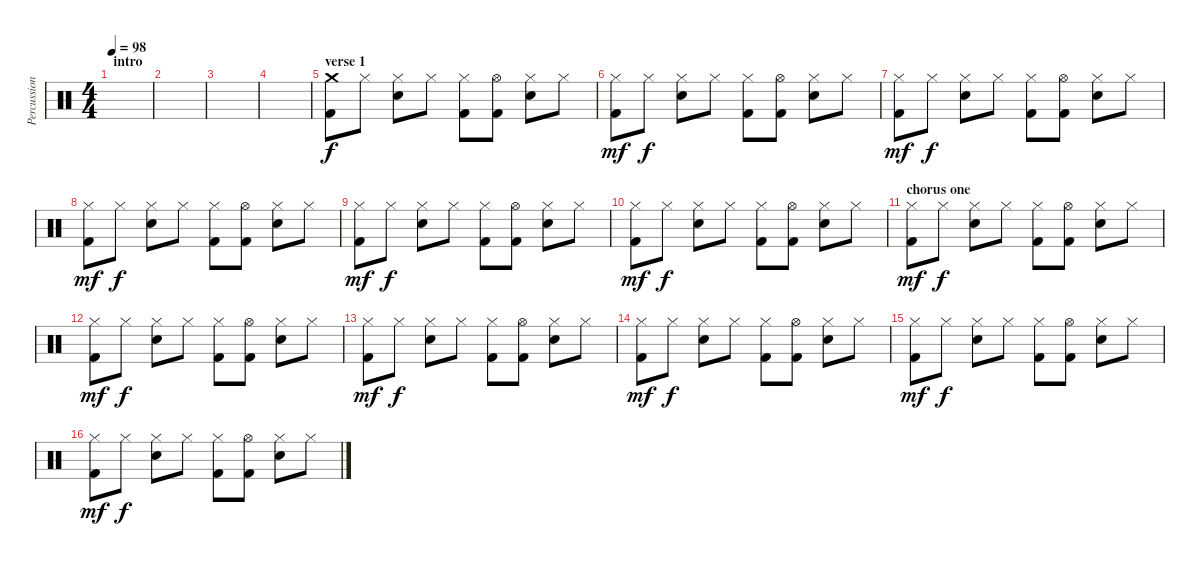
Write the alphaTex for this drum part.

\track ("Percussion" "Percussion") {instrument percussion}
\staff {score}
\articulation defaults
\ts (4 4)
\section ("" "intro")
\tempo 98
\clef neutral
\ks c
|
|
|
|
\section ("" "verse 1")
("Crash medium (hit)" "Kick (hit) 2").8 "Hi-Hat (closed)".8{dy f} ("Hi-Hat (closed)" "Snare (hit) 2").8 "Hi-Hat (closed)".8 ("Hi-Hat (closed)" "Kick (hit) 2").8 ("Hi-Hat (open)" "Kick (hit) 2").8 ("Hi-Hat (closed)" "Snare (hit) 2").8 "Hi-Hat (closed)".8 |
("Hi-Hat (closed)" "Kick (hit) 2").8{dy mf} "Hi-Hat (closed)".8{dy f} ("Hi-Hat (closed)" "Snare (hit) 2").8 "Hi-Hat (closed)".8 ("Hi-Hat (closed)" "Kick (hit) 2").8 ("Hi-Hat (open)" "Kick (hit) 2").8 ("Hi-Hat (closed)" "Snare (hit) 2").8 "Hi-Hat (closed)".8 |
("Hi-Hat (closed)" "Kick (hit) 2").8{dy mf} "Hi-Hat (closed)".8{dy f} ("Hi-Hat (closed)" "Snare (hit) 2").8 "Hi-Hat (closed)".8 ("Hi-Hat (closed)" "Kick (hit) 2").8 ("Hi-Hat (open)" "Kick (hit) 2").8 ("Hi-Hat (closed)" "Snare (hit) 2").8 "Hi-Hat (closed)".8 |
("Hi-Hat (closed)" "Kick (hit) 2").8{dy mf} "Hi-Hat (closed)".8{dy f} ("Hi-Hat (closed)" "Snare (hit) 2").8 "Hi-Hat (closed)".8 ("Hi-Hat (closed)" "Kick (hit) 2").8 ("Hi-Hat (open)" "Kick (hit) 2").8 ("Hi-Hat (closed)" "Snare (hit) 2").8 "Hi-Hat (closed)".8 |
("Hi-Hat (closed)" "Kick (hit) 2").8{dy mf} "Hi-Hat (closed)".8{dy f} ("Hi-Hat (closed)" "Snare (hit) 2").8 "Hi-Hat (closed)".8 ("Hi-Hat (closed)" "Kick (hit) 2").8 ("Hi-Hat (open)" "Kick (hit) 2").8 ("Hi-Hat (closed)" "Snare (hit) 2").8 "Hi-Hat (closed)".8 |
("Hi-Hat (closed)" "Kick (hit) 2").8{dy mf} "Hi-Hat (closed)".8{dy f} ("Hi-Hat (closed)" "Snare (hit) 2").8 "Hi-Hat (closed)".8 ("Hi-Hat (closed)" "Kick (hit) 2").8 ("Hi-Hat (open)" "Kick (hit) 2").8 ("Hi-Hat (closed)" "Snare (hit) 2").8 "Hi-Hat (closed)".8 |
\section ("" "chorus one")
("Hi-Hat (closed)" "Kick (hit) 2").8{dy mf} "Hi-Hat (closed)".8{dy f} ("Hi-Hat (closed)" "Snare (hit) 2").8 "Hi-Hat (closed)".8 ("Hi-Hat (closed)" "Kick (hit) 2").8 ("Hi-Hat (open)" "Kick (hit) 2").8 ("Hi-Hat (closed)" "Snare (hit) 2").8 "Hi-Hat (closed)".8 |
("Hi-Hat (closed)" "Kick (hit) 2").8{dy mf} "Hi-Hat (closed)".8{dy f} ("Hi-Hat (closed)" "Snare (hit) 2").8 "Hi-Hat (closed)".8 ("Hi-Hat (closed)" "Kick (hit) 2").8 ("Hi-Hat (open)" "Kick (hit) 2").8 ("Hi-Hat (closed)" "Snare (hit) 2").8 "Hi-Hat (closed)".8 |
("Hi-Hat (closed)" "Kick (hit) 2").8{dy mf} "Hi-Hat (closed)".8{dy f} ("Hi-Hat (closed)" "Snare (hit) 2").8 "Hi-Hat (closed)".8 ("Hi-Hat (closed)" "Kick (hit) 2").8 ("Hi-Hat (open)" "Kick (hit) 2").8 ("Hi-Hat (closed)" "Snare (hit) 2").8 "Hi-Hat (closed)".8 |
("Hi-Hat (closed)" "Kick (hit) 2").8{dy mf} "Hi-Hat (closed)".8{dy f} ("Hi-Hat (closed)" "Snare (hit) 2").8 "Hi-Hat (closed)".8 ("Hi-Hat (closed)" "Kick (hit) 2").8 ("Hi-Hat (open)" "Kick (hit) 2").8 ("Hi-Hat (closed)" "Snare (hit) 2").8 "Hi-Hat (closed)".8 |
("Hi-Hat (closed)" "Kick (hit) 2").8{dy mf} "Hi-Hat (closed)".8{dy f} ("Hi-Hat (closed)" "Snare (hit) 2").8 "Hi-Hat (closed)".8 ("Hi-Hat (closed)" "Kick (hit) 2").8 ("Hi-Hat (open)" "Kick (hit) 2").8 ("Hi-Hat (closed)" "Snare (hit) 2").8 "Hi-Hat (closed)".8 |
("Hi-Hat (closed)" "Kick (hit) 2").8{dy mf} "Hi-Hat (closed)".8{dy f} ("Hi-Hat (closed)" "Snare (hit) 2").8 "Hi-Hat (closed)".8 ("Hi-Hat (closed)" "Kick (hit) 2").8 ("Hi-Hat (open)" "Kick (hit) 2").8 ("Hi-Hat (closed)" "Snare (hit) 2").8 "Hi-Hat (closed)".8
